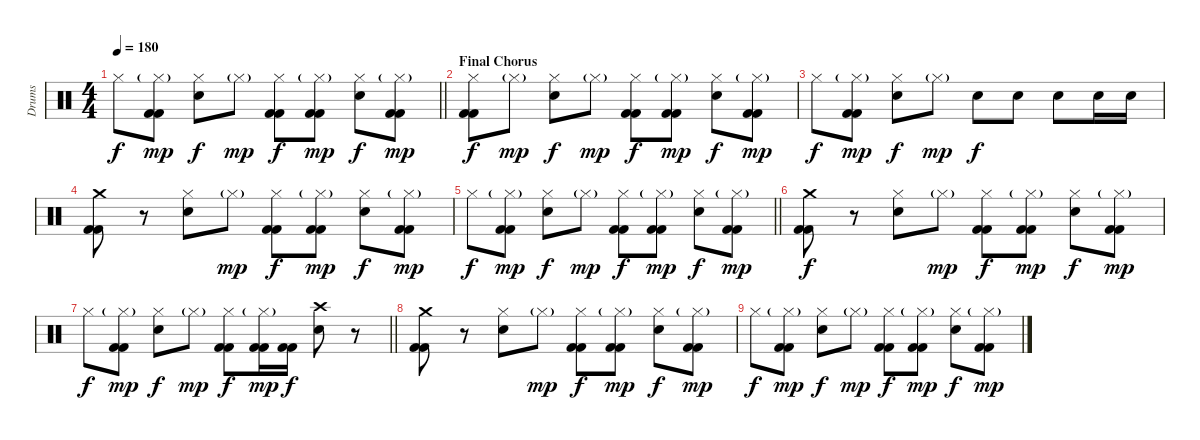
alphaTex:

\track ("Drums" "Drums") {instrument percussion}
\staff {score}
\articulation defaults
\ts (4 4)
\tempo 180
\clef neutral
\barLineRight lightlight
\ks c "Hi-Hat (closed)".8{dy f}
("Hi-Hat (closed)"{g} "Kick (hit) 2" "Kick (hit) 2").8{dy mp} ("Hi-Hat (closed)" "Snare (hit) 2").8{dy f} "Hi-Hat (closed)"{g}.8{dy mp} ("Hi-Hat (closed)" "Kick (hit) 2" "Kick (hit) 2").8{dy f} ("Hi-Hat (closed)"{g} "Kick (hit) 2" "Kick (hit) 2").8{dy mp} ("Hi-Hat (closed)" "Snare (hit) 2").8{dy f} ("Hi-Hat (closed)"{g} "Kick (hit) 2" "Kick (hit) 2").8{dy mp} |
\section ("" "Final Chorus")
("Hi-Hat (closed)" "Kick (hit) 2" "Kick (hit) 2").8{dy f} "Hi-Hat (closed)"{g}.8{dy mp} ("Hi-Hat (closed)" "Snare (hit) 2").8{dy f} "Hi-Hat (closed)"{g}.8{dy mp} ("Hi-Hat (closed)" "Kick (hit) 2" "Kick (hit) 2").8{dy f} ("Hi-Hat (closed)"{g} "Kick (hit) 2" "Kick (hit) 2").8{dy mp} ("Hi-Hat (closed)" "Snare (hit) 2").8{dy f} ("Hi-Hat (closed)"{g} "Kick (hit) 2" "Kick (hit) 2").8{dy mp} |
"Hi-Hat (closed)".8{dy f} ("Hi-Hat (closed)"{g} "Kick (hit) 2" "Kick (hit) 2").8{dy mp} ("Hi-Hat (closed)" "Snare (hit) 2").8{dy f} "Hi-Hat (closed)"{g}.8{dy mp} "Snare (hit) 2".8{dy f} "Snare (hit) 2".8 "Snare (hit) 2".8 "Snare (hit) 2".16 "Snare (hit) 2".16 |
("Crash medium (hit)" "Kick (hit) 2" "Kick (hit) 2").8 r.8 ("Hi-Hat (closed)" "Snare (hit) 2").8 "Hi-Hat (closed)"{g}.8{dy mp} ("Hi-Hat (closed)" "Kick (hit) 2" "Kick (hit) 2").8{dy f} ("Hi-Hat (closed)"{g} "Kick (hit) 2" "Kick (hit) 2").8{dy mp} ("Hi-Hat (closed)" "Snare (hit) 2").8{dy f} ("Hi-Hat (closed)"{g} "Kick (hit) 2" "Kick (hit) 2").8{dy mp} |
\barLineRight lightlight "Hi-Hat (closed)".8{dy f}
("Hi-Hat (closed)"{g} "Kick (hit) 2" "Kick (hit) 2").8{dy mp} ("Hi-Hat (closed)" "Snare (hit) 2").8{dy f} "Hi-Hat (closed)"{g}.8{dy mp} ("Hi-Hat (closed)" "Kick (hit) 2" "Kick (hit) 2").8{dy f} ("Hi-Hat (closed)"{g} "Kick (hit) 2" "Kick (hit) 2").8{dy mp} ("Hi-Hat (closed)" "Snare (hit) 2").8{dy f} ("Hi-Hat (closed)"{g} "Kick (hit) 2" "Kick (hit) 2").8{dy mp} |
("Crash medium (hit)" "Kick (hit) 2" "Kick (hit) 2").8{dy f} r.8 ("Hi-Hat (closed)" "Snare (hit) 2").8 "Hi-Hat (closed)"{g}.8{dy mp} ("Hi-Hat (closed)" "Kick (hit) 2" "Kick (hit) 2").8{dy f} ("Hi-Hat (closed)"{g} "Kick (hit) 2" "Kick (hit) 2").8{dy mp} ("Hi-Hat (closed)" "Snare (hit) 2").8{dy f} ("Hi-Hat (closed)"{g} "Kick (hit) 2" "Kick (hit) 2").8{dy mp} |
\barLineRight lightlight "Hi-Hat (closed)".8{dy f}
("Hi-Hat (closed)"{g} "Kick (hit) 2" "Kick (hit) 2").8{dy mp} ("Hi-Hat (closed)" "Snare (hit) 2").8{dy f} "Hi-Hat (closed)"{g}.8{dy mp} ("Hi-Hat (closed)" "Kick (hit) 2" "Kick (hit) 2").8{dy f} ("Hi-Hat (closed)"{g} "Kick (hit) 2" "Kick (hit) 2").16{dy mp} ("Kick (hit) 2" "Kick (hit) 2").16{dy f} ("Crash high (hit)" "Snare (hit) 2").8 r.8 |
("Crash medium (hit)" "Kick (hit) 2" "Kick (hit) 2").8 r.8 ("Hi-Hat (closed)" "Snare (hit) 2").8 "Hi-Hat (closed)"{g}.8{dy mp} ("Hi-Hat (closed)" "Kick (hit) 2" "Kick (hit) 2").8{dy f} ("Hi-Hat (closed)"{g} "Kick (hit) 2" "Kick (hit) 2").8{dy mp} ("Hi-Hat (closed)" "Snare (hit) 2").8{dy f} ("Hi-Hat (closed)"{g} "Kick (hit) 2" "Kick (hit) 2").8{dy mp} |
"Hi-Hat (closed)".8{dy f} ("Hi-Hat (closed)"{g} "Kick (hit) 2" "Kick (hit) 2").8{dy mp} ("Hi-Hat (closed)" "Snare (hit) 2").8{dy f} "Hi-Hat (closed)"{g}.8{dy mp} ("Hi-Hat (closed)" "Kick (hit) 2" "Kick (hit) 2").8{dy f} ("Hi-Hat (closed)"{g} "Kick (hit) 2" "Kick (hit) 2").8{dy mp} ("Hi-Hat (closed)" "Snare (hit) 2").8{dy f} ("Hi-Hat (closed)"{g} "Kick (hit) 2" "Kick (hit) 2").8{dy mp}
